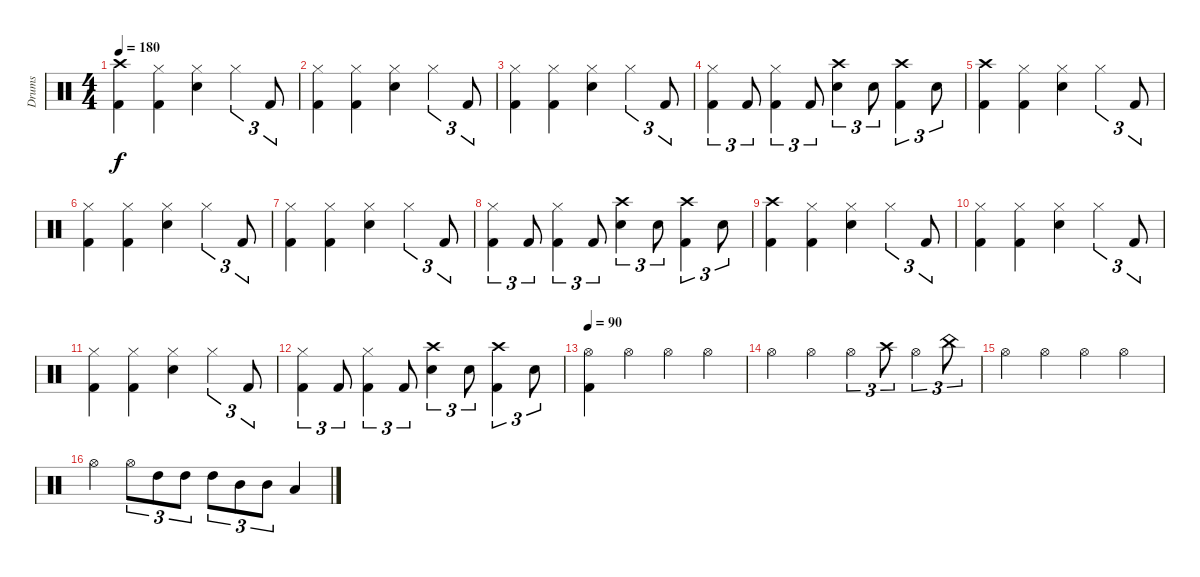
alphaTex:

\track ("Drums" "Drums") {instrument percussion}
\staff {score}
\articulation defaults
\ts (4 4)
\tempo 180
\clef neutral
\ks c
("Crash high (hit)" "Kick (hit) 2").4{dy f} ("Hi-Hat (closed)" "Kick (hit) 2").4 ("Hi-Hat (closed)" "Snare (hit) 2").4 "Hi-Hat (closed)".4{tu (3 2)} "Kick (hit) 2".8{tu (3 2)} |
("Hi-Hat (closed)" "Kick (hit) 2").4 ("Hi-Hat (closed)" "Kick (hit) 2").4 ("Hi-Hat (closed)" "Snare (hit) 2").4 "Hi-Hat (closed)".4{tu (3 2)} "Kick (hit) 2".8{tu (3 2)} |
("Hi-Hat (closed)" "Kick (hit) 2").4 ("Hi-Hat (closed)" "Kick (hit) 2").4 ("Hi-Hat (closed)" "Snare (hit) 2").4 "Hi-Hat (closed)".4{tu (3 2)} "Kick (hit) 2".8{tu (3 2)} |
("Hi-Hat (closed)" "Kick (hit) 2").4{tu (3 2)} "Kick (hit) 2".8{tu (3 2)} ("Hi-Hat (closed)" "Kick (hit) 2").4{tu (3 2)} "Kick (hit) 2".8{tu (3 2)} ("Crash high (hit)" "Snare (hit) 2").4{tu (3 2)} "Snare (hit) 2".8{tu (3 2)} ("Crash high (hit)" "Kick (hit) 2").4{tu (3 2)} "Snare (hit) 2".8{tu (3 2)} |
("Crash high (hit)" "Kick (hit) 2").4 ("Hi-Hat (closed)" "Kick (hit) 2").4 ("Hi-Hat (closed)" "Snare (hit) 2").4 "Hi-Hat (closed)".4{tu (3 2)} "Kick (hit) 2".8{tu (3 2)} |
("Hi-Hat (closed)" "Kick (hit) 2").4 ("Hi-Hat (closed)" "Kick (hit) 2").4 ("Hi-Hat (closed)" "Snare (hit) 2").4 "Hi-Hat (closed)".4{tu (3 2)} "Kick (hit) 2".8{tu (3 2)} |
("Hi-Hat (closed)" "Kick (hit) 2").4 ("Hi-Hat (closed)" "Kick (hit) 2").4 ("Hi-Hat (closed)" "Snare (hit) 2").4 "Hi-Hat (closed)".4{tu (3 2)} "Kick (hit) 2".8{tu (3 2)} |
("Hi-Hat (closed)" "Kick (hit) 2").4{tu (3 2)} "Kick (hit) 2".8{tu (3 2)} ("Hi-Hat (closed)" "Kick (hit) 2").4{tu (3 2)} "Kick (hit) 2".8{tu (3 2)} ("Crash high (hit)" "Snare (hit) 2").4{tu (3 2)} "Snare (hit) 2".8{tu (3 2)} ("Crash high (hit)" "Kick (hit) 2").4{tu (3 2)} "Snare (hit) 2".8{tu (3 2)} |
("Crash high (hit)" "Kick (hit) 2").4 ("Hi-Hat (closed)" "Kick (hit) 2").4 ("Hi-Hat (closed)" "Snare (hit) 2").4 "Hi-Hat (closed)".4{tu (3 2)} "Kick (hit) 2".8{tu (3 2)} |
("Hi-Hat (closed)" "Kick (hit) 2").4 ("Hi-Hat (closed)" "Kick (hit) 2").4 ("Hi-Hat (closed)" "Snare (hit) 2").4 "Hi-Hat (closed)".4{tu (3 2)} "Kick (hit) 2".8{tu (3 2)} |
("Hi-Hat (closed)" "Kick (hit) 2").4 ("Hi-Hat (closed)" "Kick (hit) 2").4 ("Hi-Hat (closed)" "Snare (hit) 2").4 "Hi-Hat (closed)".4{tu (3 2)} "Kick (hit) 2".8{tu (3 2)} |
("Hi-Hat (closed)" "Kick (hit) 2").4{tu (3 2)} "Kick (hit) 2".8{tu (3 2)} ("Hi-Hat (closed)" "Kick (hit) 2").4{tu (3 2)} "Kick (hit) 2".8{tu (3 2)} ("Crash high (hit)" "Snare (hit) 2").4{tu (3 2)} "Snare (hit) 2".8{tu (3 2)} ("Crash high (hit)" "Kick (hit) 2").4{tu (3 2)} "Snare (hit) 2".8{tu (3 2)} |
\tempo 90
("Hi-Hat (open)" "Kick (hit) 2").4 "Hi-Hat (open)".4 "Hi-Hat (open)".4 "Hi-Hat (open)".4 |
"Hi-Hat (open)".4 "Hi-Hat (open)".4 "Hi-Hat (open)".4{tu (3 2)} "Crash high (hit)".8{tu (3 2)} "Hi-Hat (open)".4{tu (3 2)} "China (hit)".8{tu (3 2)} |
"Hi-Hat (open)".4 "Hi-Hat (open)".4 "Hi-Hat (open)".4 "Hi-Hat (open)".4 |
"Hi-Hat (open)".4 "Hi-Hat (open)".8{tu (3 2)} "High Tom (hit)".8{tu (3 2)} "High Tom (hit)".8{tu (3 2)} "High Tom (hit)".8{tu (3 2)} "Mid Tom (hit)".8{tu (3 2)} "Mid Tom (hit)".8{tu (3 2)} "Low Tom (hit)".4
